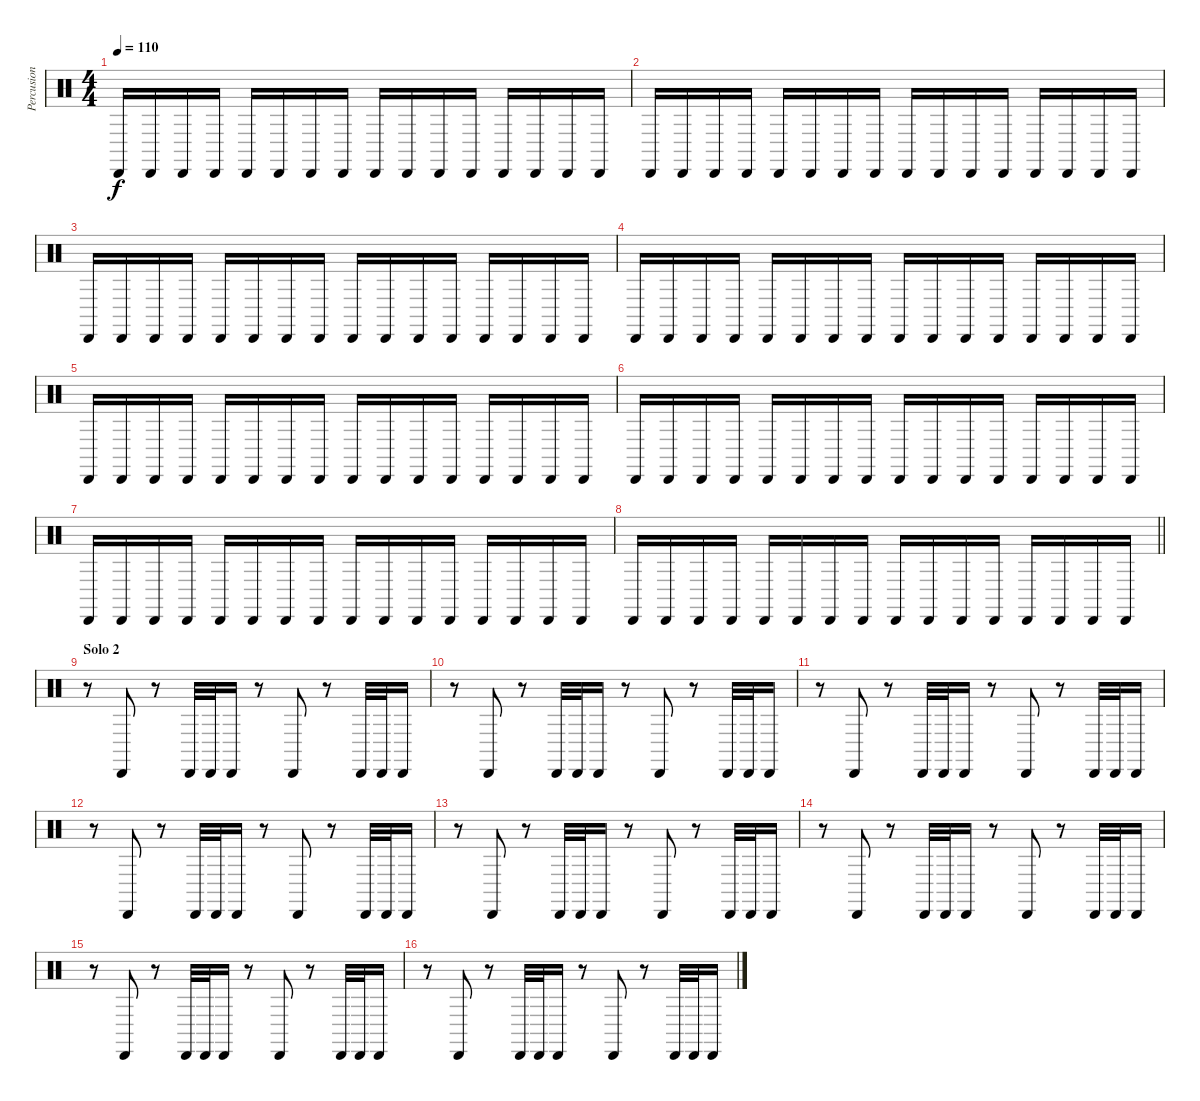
\track ("Percusion" "Percusion") {instrument percussion}
\staff {score}
\articulation defaults
\ts (4 4)
\tempo 110
\clef neutral
\ks c "Cabasa (hit)".16{dy f} "Cabasa (hit)".16 "Cabasa (hit)".16 "Cabasa (hit)".16 "Cabasa (hit)".16 "Cabasa (hit)".16 "Cabasa (hit)".16 "Cabasa (hit)".16 "Cabasa (hit)".16 "Cabasa (hit)".16 "Cabasa (hit)".16 "Cabasa (hit)".16 "Cabasa (hit)".16 "Cabasa (hit)".16 "Cabasa (hit)".16 "Cabasa (hit)".16
|
"Cabasa (hit)".16 "Cabasa (hit)".16 "Cabasa (hit)".16 "Cabasa (hit)".16 "Cabasa (hit)".16 "Cabasa (hit)".16 "Cabasa (hit)".16 "Cabasa (hit)".16 "Cabasa (hit)".16 "Cabasa (hit)".16 "Cabasa (hit)".16 "Cabasa (hit)".16 "Cabasa (hit)".16 "Cabasa (hit)".16 "Cabasa (hit)".16 "Cabasa (hit)".16 |
"Cabasa (hit)".16 "Cabasa (hit)".16 "Cabasa (hit)".16 "Cabasa (hit)".16 "Cabasa (hit)".16 "Cabasa (hit)".16 "Cabasa (hit)".16 "Cabasa (hit)".16 "Cabasa (hit)".16 "Cabasa (hit)".16 "Cabasa (hit)".16 "Cabasa (hit)".16 "Cabasa (hit)".16 "Cabasa (hit)".16 "Cabasa (hit)".16 "Cabasa (hit)".16 |
"Cabasa (hit)".16 "Cabasa (hit)".16 "Cabasa (hit)".16 "Cabasa (hit)".16 "Cabasa (hit)".16 "Cabasa (hit)".16 "Cabasa (hit)".16 "Cabasa (hit)".16 "Cabasa (hit)".16 "Cabasa (hit)".16 "Cabasa (hit)".16 "Cabasa (hit)".16 "Cabasa (hit)".16 "Cabasa (hit)".16 "Cabasa (hit)".16 "Cabasa (hit)".16 |
"Cabasa (hit)".16 "Cabasa (hit)".16 "Cabasa (hit)".16 "Cabasa (hit)".16 "Cabasa (hit)".16 "Cabasa (hit)".16 "Cabasa (hit)".16 "Cabasa (hit)".16 "Cabasa (hit)".16 "Cabasa (hit)".16 "Cabasa (hit)".16 "Cabasa (hit)".16 "Cabasa (hit)".16 "Cabasa (hit)".16 "Cabasa (hit)".16 "Cabasa (hit)".16 |
"Cabasa (hit)".16 "Cabasa (hit)".16 "Cabasa (hit)".16 "Cabasa (hit)".16 "Cabasa (hit)".16 "Cabasa (hit)".16 "Cabasa (hit)".16 "Cabasa (hit)".16 "Cabasa (hit)".16 "Cabasa (hit)".16 "Cabasa (hit)".16 "Cabasa (hit)".16 "Cabasa (hit)".16 "Cabasa (hit)".16 "Cabasa (hit)".16 "Cabasa (hit)".16 |
"Cabasa (hit)".16 "Cabasa (hit)".16 "Cabasa (hit)".16 "Cabasa (hit)".16 "Cabasa (hit)".16 "Cabasa (hit)".16 "Cabasa (hit)".16 "Cabasa (hit)".16 "Cabasa (hit)".16 "Cabasa (hit)".16 "Cabasa (hit)".16 "Cabasa (hit)".16 "Cabasa (hit)".16 "Cabasa (hit)".16 "Cabasa (hit)".16 "Cabasa (hit)".16 |
\barLineRight lightlight "Cabasa (hit)".16 "Cabasa (hit)".16 "Cabasa (hit)".16 "Cabasa (hit)".16 "Cabasa (hit)".16 "Cabasa (hit)".16 "Cabasa (hit)".16 "Cabasa (hit)".16 "Cabasa (hit)".16 "Cabasa (hit)".16 "Cabasa (hit)".16 "Cabasa (hit)".16 "Cabasa (hit)".16 "Cabasa (hit)".16 "Cabasa (hit)".16 "Cabasa (hit)".16
|
\section ("" "Solo 2")
r.8 "Cabasa (hit)".8 r.8 "Cabasa (hit)".32 "Cabasa (hit)".32 "Cabasa (hit)".16 r.8 "Cabasa (hit)".8 r.8 "Cabasa (hit)".32 "Cabasa (hit)".32 "Cabasa (hit)".16 |
r.8 "Cabasa (hit)".8 r.8 "Cabasa (hit)".32 "Cabasa (hit)".32 "Cabasa (hit)".16 r.8 "Cabasa (hit)".8 r.8 "Cabasa (hit)".32 "Cabasa (hit)".32 "Cabasa (hit)".16 |
r.8 "Cabasa (hit)".8 r.8 "Cabasa (hit)".32 "Cabasa (hit)".32 "Cabasa (hit)".16 r.8 "Cabasa (hit)".8 r.8 "Cabasa (hit)".32 "Cabasa (hit)".32 "Cabasa (hit)".16 |
r.8 "Cabasa (hit)".8 r.8 "Cabasa (hit)".32 "Cabasa (hit)".32 "Cabasa (hit)".16 r.8 "Cabasa (hit)".8 r.8 "Cabasa (hit)".32 "Cabasa (hit)".32 "Cabasa (hit)".16 |
r.8 "Cabasa (hit)".8 r.8 "Cabasa (hit)".32 "Cabasa (hit)".32 "Cabasa (hit)".16 r.8 "Cabasa (hit)".8 r.8 "Cabasa (hit)".32 "Cabasa (hit)".32 "Cabasa (hit)".16 |
r.8 "Cabasa (hit)".8 r.8 "Cabasa (hit)".32 "Cabasa (hit)".32 "Cabasa (hit)".16 r.8 "Cabasa (hit)".8 r.8 "Cabasa (hit)".32 "Cabasa (hit)".32 "Cabasa (hit)".16 |
r.8 "Cabasa (hit)".8 r.8 "Cabasa (hit)".32 "Cabasa (hit)".32 "Cabasa (hit)".16 r.8 "Cabasa (hit)".8 r.8 "Cabasa (hit)".32 "Cabasa (hit)".32 "Cabasa (hit)".16 |
r.8 "Cabasa (hit)".8 r.8 "Cabasa (hit)".32 "Cabasa (hit)".32 "Cabasa (hit)".16 r.8 "Cabasa (hit)".8 r.8 "Cabasa (hit)".32 "Cabasa (hit)".32 "Cabasa (hit)".16
